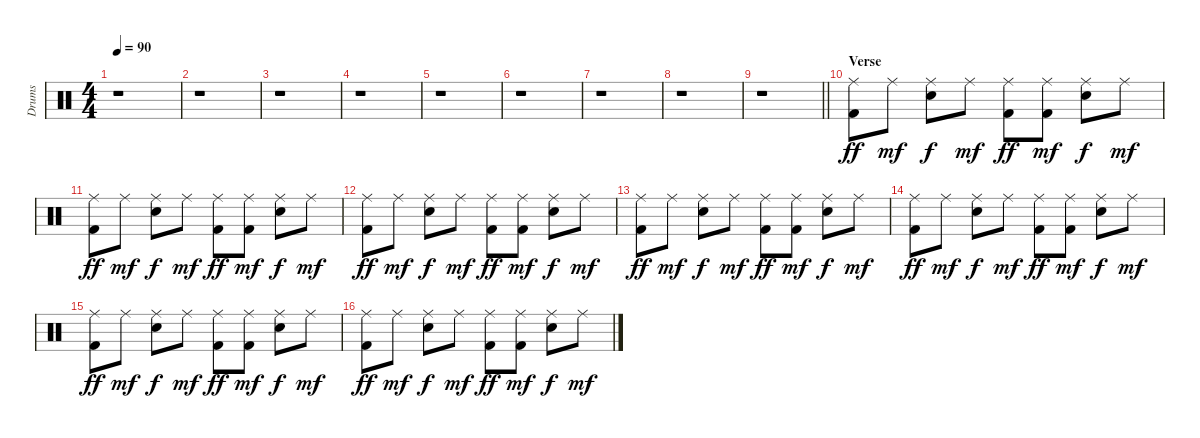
\track ("Drums" "Drums") {instrument percussion}
\staff {score}
\articulation defaults
\ts (4 4)
\tempo 90
\clef neutral
\ks c
r.1{dy f} |
r.1 |
r.1 |
r.1 |
r.1 |
r.1 |
r.1 |
r.1 |
\barLineRight lightlight
r.1 |
\section ("" "Verse")
("Ride (middle)" "Kick (hit) 2").8{dy ff} "Ride (middle)".8{dy mf} ("Ride (middle)" "Electric Snare (hit)").8{dy f} "Ride (middle)".8{dy mf} ("Ride (middle)" "Kick (hit) 2").8{dy ff} ("Ride (middle)" "Kick (hit) 2").8{dy mf} ("Ride (middle)" "Electric Snare (hit)").8{dy f} "Ride (middle)".8{dy mf} |
("Ride (middle)" "Kick (hit) 2").8{dy ff} "Ride (middle)".8{dy mf} ("Ride (middle)" "Electric Snare (hit)").8{dy f} "Ride (middle)".8{dy mf} ("Ride (middle)" "Kick (hit) 2").8{dy ff} ("Ride (middle)" "Kick (hit) 2").8{dy mf} ("Ride (middle)" "Electric Snare (hit)").8{dy f} "Ride (middle)".8{dy mf} |
("Ride (middle)" "Kick (hit) 2").8{dy ff} "Ride (middle)".8{dy mf} ("Ride (middle)" "Electric Snare (hit)").8{dy f} "Ride (middle)".8{dy mf} ("Ride (middle)" "Kick (hit) 2").8{dy ff} ("Ride (middle)" "Kick (hit) 2").8{dy mf} ("Ride (middle)" "Electric Snare (hit)").8{dy f} "Ride (middle)".8{dy mf} |
("Ride (middle)" "Kick (hit) 2").8{dy ff} "Ride (middle)".8{dy mf} ("Ride (middle)" "Electric Snare (hit)").8{dy f} "Ride (middle)".8{dy mf} ("Ride (middle)" "Kick (hit) 2").8{dy ff} ("Ride (middle)" "Kick (hit) 2").8{dy mf} ("Ride (middle)" "Electric Snare (hit)").8{dy f} "Ride (middle)".8{dy mf} |
("Ride (middle)" "Kick (hit) 2").8{dy ff} "Ride (middle)".8{dy mf} ("Ride (middle)" "Electric Snare (hit)").8{dy f} "Ride (middle)".8{dy mf} ("Ride (middle)" "Kick (hit) 2").8{dy ff} ("Ride (middle)" "Kick (hit) 2").8{dy mf} ("Ride (middle)" "Electric Snare (hit)").8{dy f} "Ride (middle)".8{dy mf} |
("Ride (middle)" "Kick (hit) 2").8{dy ff} "Ride (middle)".8{dy mf} ("Ride (middle)" "Electric Snare (hit)").8{dy f} "Ride (middle)".8{dy mf} ("Ride (middle)" "Kick (hit) 2").8{dy ff} ("Ride (middle)" "Kick (hit) 2").8{dy mf} ("Ride (middle)" "Electric Snare (hit)").8{dy f} "Ride (middle)".8{dy mf} |
("Ride (middle)" "Kick (hit) 2").8{dy ff} "Ride (middle)".8{dy mf} ("Ride (middle)" "Electric Snare (hit)").8{dy f} "Ride (middle)".8{dy mf} ("Ride (middle)" "Kick (hit) 2").8{dy ff} ("Ride (middle)" "Kick (hit) 2").8{dy mf} ("Ride (middle)" "Electric Snare (hit)").8{dy f} "Ride (middle)".8{dy mf}
